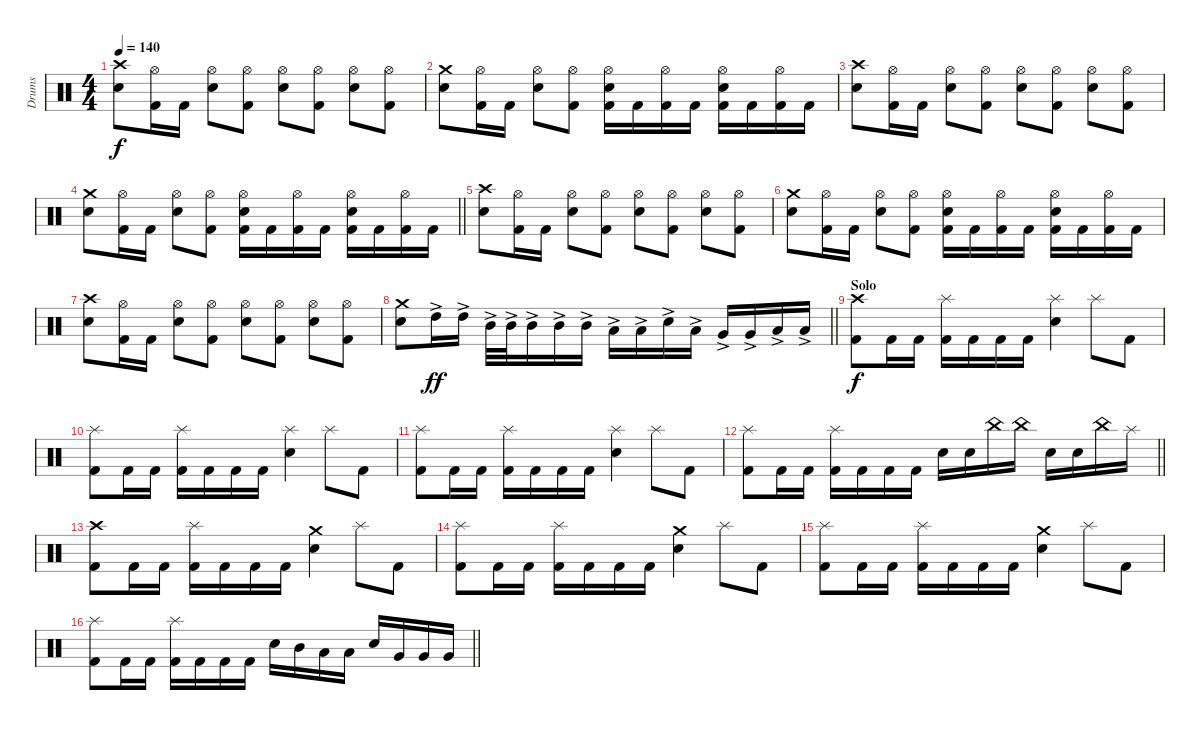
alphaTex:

\track ("Drums" "Drums") {instrument percussion}
\staff {score}
\articulation defaults
\ts (4 4)
\section ("" "")
\tempo 140
\clef neutral
\ks c
("Snare (hit) 2" "Crash high (hit)").8{dy f} ("Kick (hit) 2" "Hi-Hat (open)").16 "Kick (hit) 2".16 ("Snare (hit) 2" "Hi-Hat (open)").8 ("Kick (hit) 2" "Hi-Hat (open)").8 ("Snare (hit) 2" "Hi-Hat (open)").8 ("Kick (hit) 2" "Hi-Hat (open)").8 ("Snare (hit) 2" "Hi-Hat (open)").8 ("Kick (hit) 2" "Hi-Hat (open)").8 |
("Snare (hit) 2" "Crash medium (hit)").8 ("Kick (hit) 2" "Hi-Hat (open)").16 "Kick (hit) 2".16 ("Snare (hit) 2" "Hi-Hat (open)").8 ("Kick (hit) 2" "Hi-Hat (open)").8 ("Kick (hit) 2" "Snare (hit) 2" "Hi-Hat (open)").16 "Kick (hit) 2".16 ("Kick (hit) 2" "Hi-Hat (open)").16 "Kick (hit) 2".16 ("Kick (hit) 2" "Snare (hit) 2" "Hi-Hat (open)").16 "Kick (hit) 2".16 ("Kick (hit) 2" "Hi-Hat (open)").16 "Kick (hit) 2".16 |
("Snare (hit) 2" "Crash high (hit)").8 ("Kick (hit) 2" "Hi-Hat (open)").16 "Kick (hit) 2".16 ("Snare (hit) 2" "Hi-Hat (open)").8 ("Kick (hit) 2" "Hi-Hat (open)").8 ("Snare (hit) 2" "Hi-Hat (open)").8 ("Kick (hit) 2" "Hi-Hat (open)").8 ("Snare (hit) 2" "Hi-Hat (open)").8 ("Kick (hit) 2" "Hi-Hat (open)").8 |
\barLineRight lightlight
("Snare (hit) 2" "Crash medium (hit)").8 ("Kick (hit) 2" "Hi-Hat (open)").16 "Kick (hit) 2".16 ("Snare (hit) 2" "Hi-Hat (open)").8 ("Kick (hit) 2" "Hi-Hat (open)").8 ("Kick (hit) 2" "Snare (hit) 2" "Hi-Hat (open)").16 "Kick (hit) 2".16 ("Kick (hit) 2" "Hi-Hat (open)").16 "Kick (hit) 2".16 ("Kick (hit) 2" "Snare (hit) 2" "Hi-Hat (open)").16 "Kick (hit) 2".16 ("Kick (hit) 2" "Hi-Hat (open)").16 "Kick (hit) 2".16 |
\section ("" "")
("Snare (hit) 2" "Crash high (hit)").8 ("Kick (hit) 2" "Hi-Hat (open)").16 "Kick (hit) 2".16 ("Snare (hit) 2" "Hi-Hat (open)").8 ("Kick (hit) 2" "Hi-Hat (open)").8 ("Snare (hit) 2" "Hi-Hat (open)").8 ("Kick (hit) 2" "Hi-Hat (open)").8 ("Snare (hit) 2" "Hi-Hat (open)").8 ("Kick (hit) 2" "Hi-Hat (open)").8 |
("Snare (hit) 2" "Crash medium (hit)").8 ("Kick (hit) 2" "Hi-Hat (open)").16 "Kick (hit) 2".16 ("Snare (hit) 2" "Hi-Hat (open)").8 ("Kick (hit) 2" "Hi-Hat (open)").8 ("Kick (hit) 2" "Snare (hit) 2" "Hi-Hat (open)").16 "Kick (hit) 2".16 ("Kick (hit) 2" "Hi-Hat (open)").16 "Kick (hit) 2".16 ("Kick (hit) 2" "Snare (hit) 2" "Hi-Hat (open)").16 "Kick (hit) 2".16 ("Kick (hit) 2" "Hi-Hat (open)").16 "Kick (hit) 2".16 |
("Snare (hit) 2" "Crash high (hit)").8 ("Kick (hit) 2" "Hi-Hat (open)").16 "Kick (hit) 2".16 ("Snare (hit) 2" "Hi-Hat (open)").8 ("Kick (hit) 2" "Hi-Hat (open)").8 ("Snare (hit) 2" "Hi-Hat (open)").8 ("Kick (hit) 2" "Hi-Hat (open)").8 ("Snare (hit) 2" "Hi-Hat (open)").8 ("Kick (hit) 2" "Hi-Hat (open)").8 |
\barLineRight lightlight
("Snare (hit) 2" "Crash medium (hit)").8 "High Tom (hit)"{ac}.16{dy ff} "High Tom (hit)"{ac}.16 "Mid Tom (hit)"{ac}.32 "Mid Tom (hit)"{ac}.32 "Mid Tom (hit)"{ac}.16 "Mid Tom (hit)"{ac}.16 "Mid Tom (hit)"{ac}.16 "Low Tom (hit)"{ac}.16 "Low Tom (hit)"{ac}.16 "Snare (hit) 2"{ac}.16 "Low Tom (hit)"{ac}.16 "Very Low Tom (hit)"{ac}.16 "Very Low Tom (hit)"{ac}.16 "Low Floor Tom (hit)"{ac}.16 "Low Floor Tom (hit)"{ac}.16 |
\section ("" "Solo")
("Kick (hit) 2" "Crash high (hit)").8{dy f} "Kick (hit) 2".16 "Kick (hit) 2".16 ("Kick (hit) 2" "Splash (hit)").16 "Kick (hit) 2".16 "Kick (hit) 2".16 "Kick (hit) 2".16 ("Snare (hit) 2" "Splash (hit)").4 "Splash (hit)".8 "Kick (hit) 2".8 |
("Kick (hit) 2" "Splash (hit)").8 "Kick (hit) 2".16 "Kick (hit) 2".16 ("Kick (hit) 2" "Splash (hit)").16 "Kick (hit) 2".16 "Kick (hit) 2".16 "Kick (hit) 2".16 ("Snare (hit) 2" "Splash (hit)").4 "Splash (hit)".8 "Kick (hit) 2".8 |
("Kick (hit) 2" "Splash (hit)").8 "Kick (hit) 2".16 "Kick (hit) 2".16 ("Kick (hit) 2" "Splash (hit)").16 "Kick (hit) 2".16 "Kick (hit) 2".16 "Kick (hit) 2".16 ("Snare (hit) 2" "Splash (hit)").4 "Splash (hit)".8 "Kick (hit) 2".8 |
\barLineRight lightlight
("Kick (hit) 2" "Splash (hit)").8 "Kick (hit) 2".16 "Kick (hit) 2".16 ("Kick (hit) 2" "Splash (hit)").16 "Kick (hit) 2".16 "Kick (hit) 2".16 "Kick (hit) 2".16 "Snare (hit) 2".16 "Snare (hit) 2".16 "China (hit)".16 "China (hit)".16 "Snare (hit) 2".16 "Snare (hit) 2".16 "China (hit)".16 "Splash (hit)".16 |
\section ("" "")
("Kick (hit) 2" "Crash high (hit)").8 "Kick (hit) 2".16 "Kick (hit) 2".16 ("Kick (hit) 2" "Splash (hit)").16 "Kick (hit) 2".16 "Kick (hit) 2".16 "Kick (hit) 2".16 ("Snare (hit) 2" "Crash medium (hit)").4 "Splash (hit)".8 "Kick (hit) 2".8 |
("Kick (hit) 2" "Splash (hit)").8 "Kick (hit) 2".16 "Kick (hit) 2".16 ("Kick (hit) 2" "Splash (hit)").16 "Kick (hit) 2".16 "Kick (hit) 2".16 "Kick (hit) 2".16 ("Snare (hit) 2" "Crash medium (hit)").4 "Splash (hit)".8 "Kick (hit) 2".8 |
("Kick (hit) 2" "Splash (hit)").8 "Kick (hit) 2".16 "Kick (hit) 2".16 ("Kick (hit) 2" "Splash (hit)").16 "Kick (hit) 2".16 "Kick (hit) 2".16 "Kick (hit) 2".16 ("Snare (hit) 2" "Crash medium (hit)").4 "Splash (hit)".8 "Kick (hit) 2".8 |
\barLineRight lightlight
("Kick (hit) 2" "Splash (hit)").8 "Kick (hit) 2".16 "Kick (hit) 2".16 ("Kick (hit) 2" "Splash (hit)").16 "Kick (hit) 2".16 "Kick (hit) 2".16 "Kick (hit) 2".16 "Snare (hit) 2".16 "Mid Tom (hit)".16 "Low Tom (hit)".16 "Low Tom (hit)".16 "Snare (hit) 2".16 "Very Low Tom (hit)".16 "Very Low Tom (hit)".16 "Very Low Tom (hit)".16
